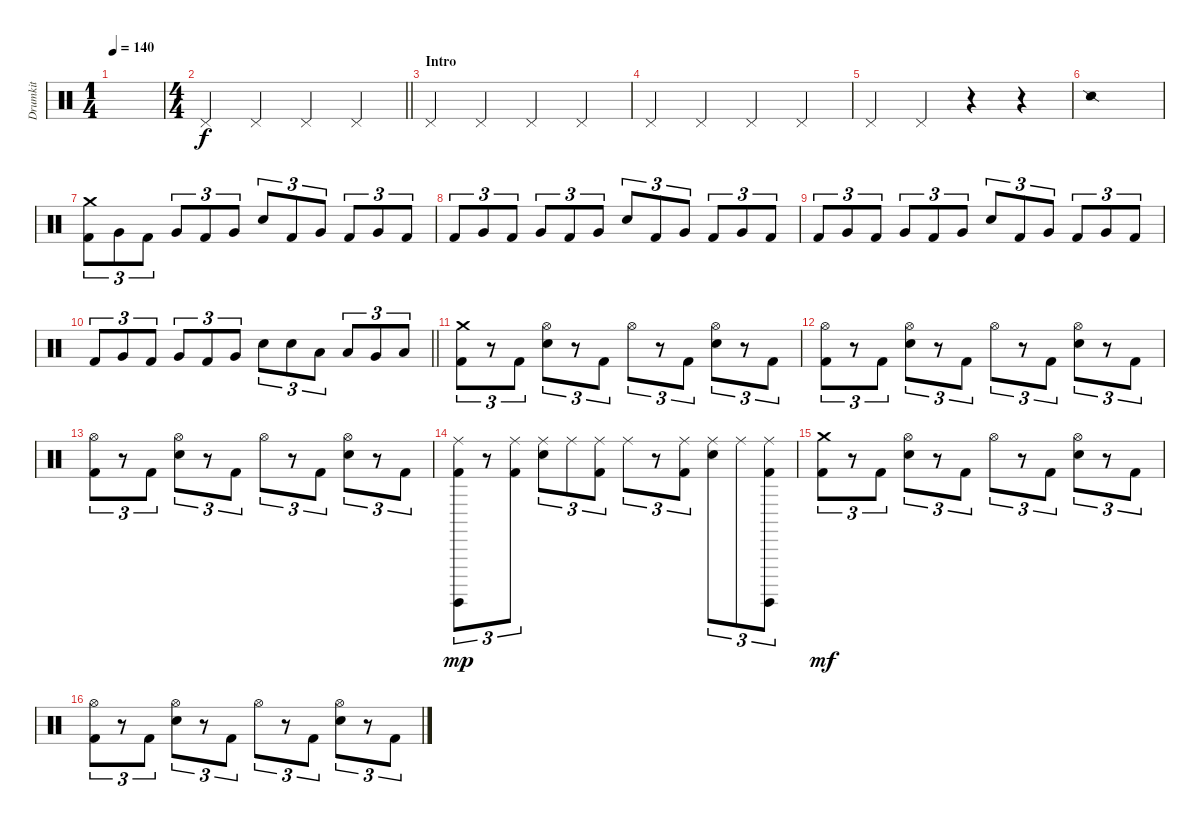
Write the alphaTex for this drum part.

\track ("Drumkit" "Drumkit") {instrument percussion}
\staff {score}
\articulation defaults
\ts (1 4)
\tempo 140
\clef neutral
\ks c
|
\ts (4 4)
\barLineRight lightlight "Pedal Hi-Hat (hit)".4 "Pedal Hi-Hat (hit)".4 "Pedal Hi-Hat (hit)".4 "Pedal Hi-Hat (hit)".4
|
\section ("" "Intro")
"Pedal Hi-Hat (hit)".4 "Pedal Hi-Hat (hit)".4 "Pedal Hi-Hat (hit)".4 "Pedal Hi-Hat (hit)".4 |
"Pedal Hi-Hat (hit)".4 "Pedal Hi-Hat (hit)".4 "Pedal Hi-Hat (hit)".4 "Pedal Hi-Hat (hit)".4 |
"Pedal Hi-Hat (hit)".4 "Pedal Hi-Hat (hit)".4 r.4 r.4 |
"Snare (side stick) 2".1 |
("Kick (hit) 2" "Crash medium (hit)").8{tu (3 2)} "Very Low Tom (hit)".8{tu (3 2)} "Kick (hit) 2".8{tu (3 2)} "Very Low Tom (hit)".8{tu (3 2)} "Kick (hit) 2".8{tu (3 2)} "Very Low Tom (hit)".8{tu (3 2)} "Snare (hit) 2".8{tu (3 2)} "Kick (hit) 2".8{tu (3 2)} "Very Low Tom (hit)".8{tu (3 2)} "Kick (hit) 2".8{tu (3 2)} "Very Low Tom (hit)".8{tu (3 2)} "Kick (hit) 2".8{tu (3 2)} |
"Kick (hit) 2".8{tu (3 2)} "Very Low Tom (hit)".8{tu (3 2)} "Kick (hit) 2".8{tu (3 2)} "Very Low Tom (hit)".8{tu (3 2)} "Kick (hit) 2".8{tu (3 2)} "Very Low Tom (hit)".8{tu (3 2)} "Snare (hit) 2".8{tu (3 2)} "Kick (hit) 2".8{tu (3 2)} "Very Low Tom (hit)".8{tu (3 2)} "Kick (hit) 2".8{tu (3 2)} "Very Low Tom (hit)".8{tu (3 2)} "Kick (hit) 2".8{tu (3 2)} |
"Kick (hit) 2".8{tu (3 2)} "Very Low Tom (hit)".8{tu (3 2)} "Kick (hit) 2".8{tu (3 2)} "Very Low Tom (hit)".8{tu (3 2)} "Kick (hit) 2".8{tu (3 2)} "Very Low Tom (hit)".8{tu (3 2)} "Snare (hit) 2".8{tu (3 2)} "Kick (hit) 2".8{tu (3 2)} "Very Low Tom (hit)".8{tu (3 2)} "Kick (hit) 2".8{tu (3 2)} "Very Low Tom (hit)".8{tu (3 2)} "Kick (hit) 2".8{tu (3 2)} |
\barLineRight lightlight "Kick (hit) 2".8{tu (3 2)} "Very Low Tom (hit)".8{tu (3 2)} "Kick (hit) 2".8{tu (3 2)} "Very Low Tom (hit)".8{tu (3 2)} "Kick (hit) 2".8{tu (3 2)} "Very Low Tom (hit)".8{tu (3 2)} "Snare (hit) 2".8{tu (3 2)} "Snare (hit) 2".8{tu (3 2)} "Low Tom (hit)".8{tu (3 2)} "Low Tom (hit)".8{tu (3 2)} "Very Low Tom (hit)".8{tu (3 2)} "Low Floor Tom (hit)".8{tu (3 2)}
|
("Kick (hit) 2" "Crash medium (hit)").8{tu (3 2)} r.8{tu (3 2)} "Kick (hit) 2".8{tu (3 2)} ("Snare (hit) 2" "Hi-Hat (open)").8{tu (3 2)} r.8{tu (3 2)} "Kick (hit) 2".8{tu (3 2)} "Hi-Hat (open)".8{tu (3 2)} r.8{tu (3 2)} "Kick (hit) 2".8{tu (3 2)} ("Snare (hit) 2" "Hi-Hat (open)").8{tu (3 2)} r.8{tu (3 2)} "Kick (hit) 2".8{tu (3 2)} |
("Kick (hit) 2" "Hi-Hat (open)").8{tu (3 2)} r.8{tu (3 2)} "Kick (hit) 2".8{tu (3 2)} ("Snare (hit) 2" "Hi-Hat (open)").8{tu (3 2)} r.8{tu (3 2)} "Kick (hit) 2".8{tu (3 2)} "Hi-Hat (open)".8{tu (3 2)} r.8{tu (3 2)} "Kick (hit) 2".8{tu (3 2)} ("Snare (hit) 2" "Hi-Hat (open)").8{tu (3 2)} r.8{tu (3 2)} "Kick (hit) 2".8{tu (3 2)} |
("Kick (hit) 2" "Hi-Hat (open)").8{tu (3 2)} r.8{tu (3 2)} "Kick (hit) 2".8{tu (3 2)} ("Snare (hit) 2" "Hi-Hat (open)").8{tu (3 2)} r.8{tu (3 2)} "Kick (hit) 2".8{tu (3 2)} "Hi-Hat (open)".8{tu (3 2)} r.8{tu (3 2)} "Kick (hit) 2".8{tu (3 2)} ("Snare (hit) 2" "Hi-Hat (open)").8{tu (3 2)} r.8{tu (3 2)} "Kick (hit) 2".8{tu (3 2)} |
("Kick (hit) 2" "Surdo (hit)" "Ride (middle)").8{tu (3 2) dy mp} r.8{tu (3 2)} ("Kick (hit) 2" "Ride (middle)").8{tu (3 2)} ("Snare (hit) 2" "Ride (middle)").8{tu (3 2)} "Ride (middle)".8{tu (3 2)} ("Kick (hit) 2" "Ride (middle)").8{tu (3 2)} "Ride (middle)".8{tu (3 2)} r.8{tu (3 2)} ("Kick (hit) 2" "Ride (middle)").8{tu (3 2)} ("Snare (hit) 2" "Ride (middle)").8{tu (3 2)} "Ride (middle)".8{tu (3 2)} ("Kick (hit) 2" "Surdo (hit)" "Ride (middle)").8{tu (3 2)} |
("Kick (hit) 2" "Crash medium (hit)").8{tu (3 2) dy mf} r.8{tu (3 2)} "Kick (hit) 2".8{tu (3 2)} ("Snare (hit) 2" "Hi-Hat (open)").8{tu (3 2)} r.8{tu (3 2)} "Kick (hit) 2".8{tu (3 2)} "Hi-Hat (open)".8{tu (3 2)} r.8{tu (3 2)} "Kick (hit) 2".8{tu (3 2)} ("Snare (hit) 2" "Hi-Hat (open)").8{tu (3 2)} r.8{tu (3 2)} "Kick (hit) 2".8{tu (3 2)} |
("Kick (hit) 2" "Hi-Hat (open)").8{tu (3 2)} r.8{tu (3 2)} "Kick (hit) 2".8{tu (3 2)} ("Snare (hit) 2" "Hi-Hat (open)").8{tu (3 2)} r.8{tu (3 2)} "Kick (hit) 2".8{tu (3 2)} "Hi-Hat (open)".8{tu (3 2)} r.8{tu (3 2)} "Kick (hit) 2".8{tu (3 2)} ("Snare (hit) 2" "Hi-Hat (open)").8{tu (3 2)} r.8{tu (3 2)} "Kick (hit) 2".8{tu (3 2)}
